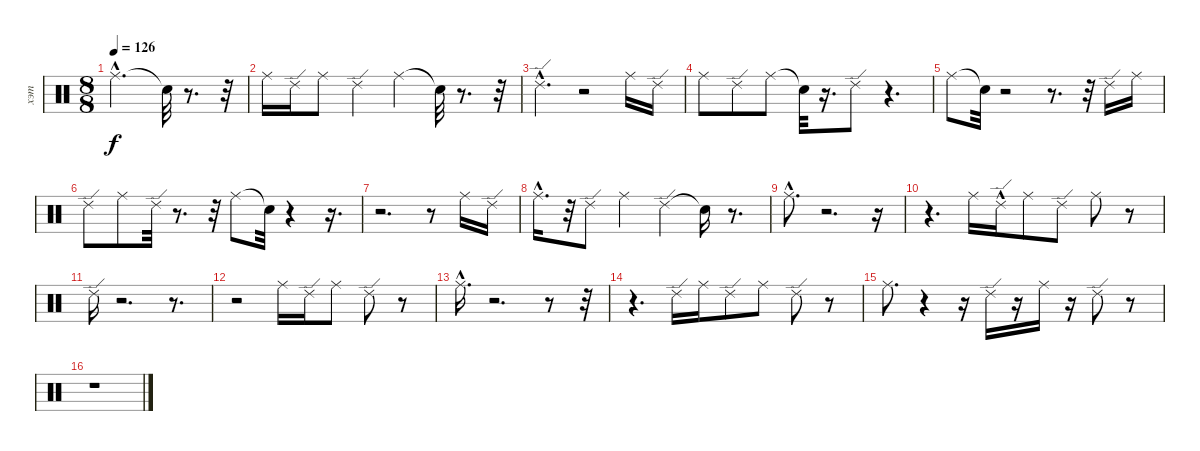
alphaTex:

\track ("хэт" "хэт") {instrument percussion}
\staff {score}
\articulation defaults
\ts (8 8)
\tempo 126
\clef neutral
\ks c "Ride (middle)"{hac}.2{d dy f} "Snare (hit)"{t}.32
r.8{d} r.32 |
"Ride (middle)".16 "Ride (edge) 2".16 "Ride (middle)".8 "Ride (edge) 2".4 "Ride (middle)".4 "Snare (hit)"{t}.32 r.8{d} r.32 |
"Ride (edge) 2"{hac}.4{d} r.2 "Ride (middle)".16 "Ride (edge) 2".16 |
"Ride (middle)".8 "Ride (edge) 2".8 "Ride (middle)".8 "Snare (hit)"{t}.32 r.16{d} "Ride (edge) 2".8 r.4{d} |
"Ride (middle)".8 "Snare (hit)"{t}.32 r.2 r.8{d} r.32 "Ride (edge) 2".16 "Ride (middle)".16 |
"Ride (edge) 2".8 "Ride (middle)".8 "Ride (edge) 2".32 r.8{d} r.32 "Ride (middle)".8 "Snare (hit)"{t}.32 r.4 r.16{d} |
r.2{d} r.8 "Ride (middle)".16 "Ride (edge) 2".16 |
"Ride (middle)"{hac}.16{d} r.32 "Ride (edge) 2".8 "Ride (middle)".4 "Ride (edge) 2".4 "Snare (hit)"{t}.16 r.8{d} |
"Ride (middle)"{hac}.8{d} r.2{d} r.16 |
r.4{d} "Ride (middle)".16 "Ride (edge) 2"{hac}.16 "Ride (middle)".8 "Ride (edge) 2".8 "Ride (middle)".8 r.8 |
"Ride (edge) 2".16 r.2{d} r.8{d} |
r.2 "Ride (middle)".16 "Ride (edge) 2".16 "Ride (middle)".8 "Ride (edge) 2".8 r.8 |
"Ride (middle)"{hac}.16{d} r.2{d} r.8 r.32 |
r.4{d} "Ride (edge) 2".16 "Ride (middle)".16 "Ride (edge) 2".8 "Ride (middle)".8 "Ride (edge) 2".8 r.8 |
"Ride (middle)".8{d} r.4 r.16 "Ride (edge) 2".16 r.16 "Ride (middle)".16 r.16 "Ride (edge) 2".8 r.8 |
r.1
